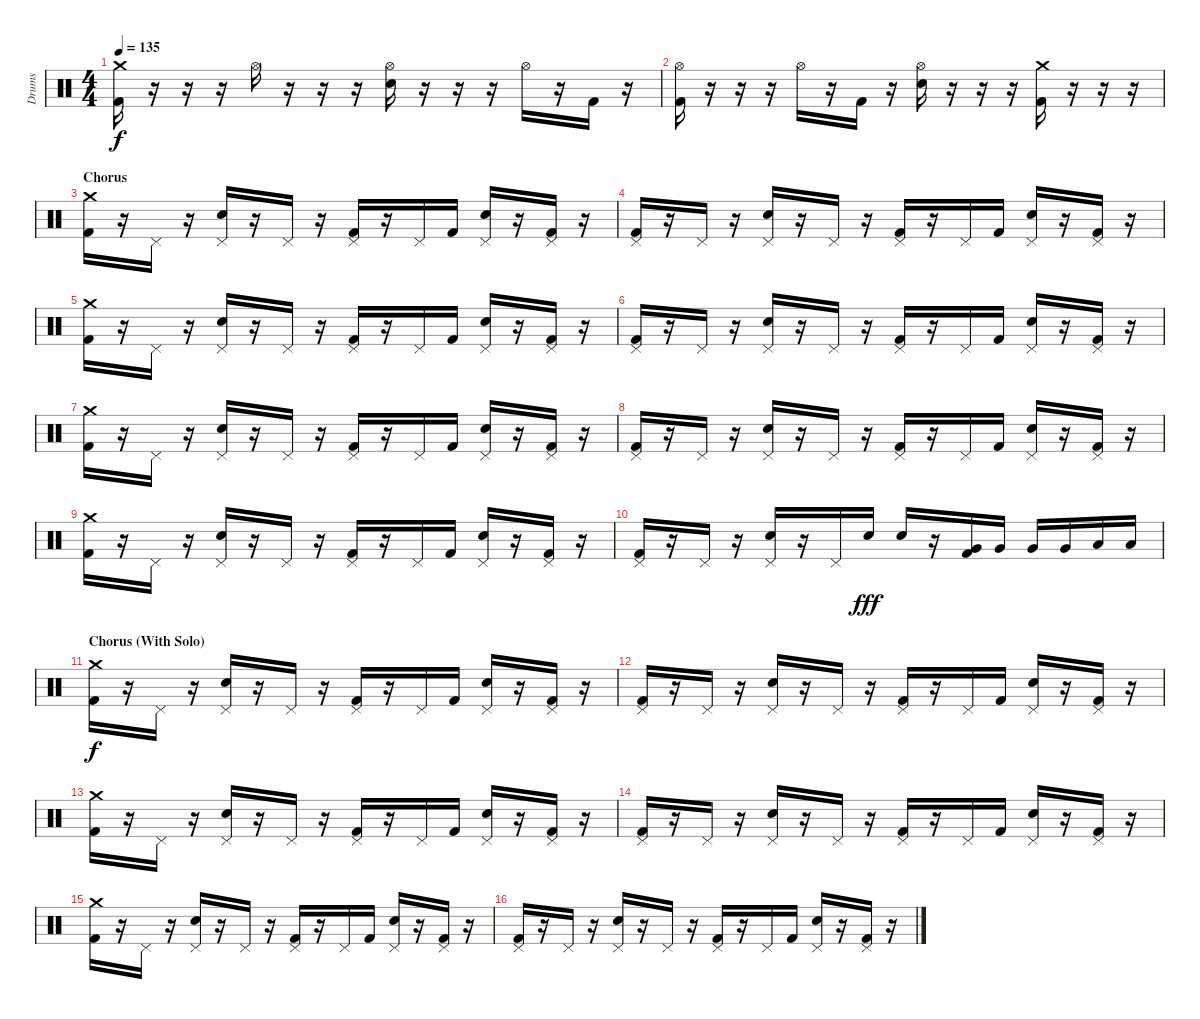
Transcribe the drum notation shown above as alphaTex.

\track ("Drums" "Drums") {instrument percussion}
\staff {score}
\articulation defaults
\ts (4 4)
\tempo 135
\clef neutral
\ks c
("Crash medium (hit)" "Kick (hit) 2").16{dy f} r.16 r.16 r.16 "Hi-Hat (open)".16 r.16 r.16 r.16 ("Hi-Hat (open)" "Electric Snare (hit)").16 r.16 r.16 r.16 "Hi-Hat (open)".16 r.16 "Kick (hit) 2".16 r.16 |
("Hi-Hat (open)" "Kick (hit) 2").16 r.16 r.16 r.16 "Hi-Hat (open)".16 r.16 "Kick (hit) 2".16 r.16 ("Hi-Hat (open)" "Electric Snare (hit)").16 r.16 r.16 r.16 ("Crash medium (hit)" "Kick (hit) 2").16 r.16 r.16 r.16 |
\section ("" "Chorus")
("Crash medium (hit)" "Kick (hit) 2").16 r.16 "Pedal Hi-Hat (hit)".16 r.16 ("Pedal Hi-Hat (hit)" "Electric Snare (hit)").16 r.16 "Pedal Hi-Hat (hit)".16 r.16 ("Pedal Hi-Hat (hit)" "Kick (hit) 2").16 r.16 "Pedal Hi-Hat (hit)".16 "Kick (hit) 2".16 ("Pedal Hi-Hat (hit)" "Electric Snare (hit)").16 r.16 ("Pedal Hi-Hat (hit)" "Kick (hit) 2").16 r.16 |
("Pedal Hi-Hat (hit)" "Kick (hit) 2").16 r.16 "Pedal Hi-Hat (hit)".16 r.16 ("Pedal Hi-Hat (hit)" "Electric Snare (hit)").16 r.16 "Pedal Hi-Hat (hit)".16 r.16 ("Pedal Hi-Hat (hit)" "Kick (hit) 2").16 r.16 "Pedal Hi-Hat (hit)".16 "Kick (hit) 2".16 ("Pedal Hi-Hat (hit)" "Electric Snare (hit)").16 r.16 ("Pedal Hi-Hat (hit)" "Kick (hit) 2").16 r.16 |
("Crash medium (hit)" "Kick (hit) 2").16 r.16 "Pedal Hi-Hat (hit)".16 r.16 ("Pedal Hi-Hat (hit)" "Electric Snare (hit)").16 r.16 "Pedal Hi-Hat (hit)".16 r.16 ("Pedal Hi-Hat (hit)" "Kick (hit) 2").16 r.16 "Pedal Hi-Hat (hit)".16 "Kick (hit) 2".16 ("Pedal Hi-Hat (hit)" "Electric Snare (hit)").16 r.16 ("Pedal Hi-Hat (hit)" "Kick (hit) 2").16 r.16 |
("Pedal Hi-Hat (hit)" "Kick (hit) 2").16 r.16 "Pedal Hi-Hat (hit)".16 r.16 ("Pedal Hi-Hat (hit)" "Electric Snare (hit)").16 r.16 "Pedal Hi-Hat (hit)".16 r.16 ("Pedal Hi-Hat (hit)" "Kick (hit) 2").16 r.16 "Pedal Hi-Hat (hit)".16 "Kick (hit) 2".16 ("Pedal Hi-Hat (hit)" "Electric Snare (hit)").16 r.16 ("Pedal Hi-Hat (hit)" "Kick (hit) 2").16 r.16 |
("Crash medium (hit)" "Kick (hit) 2").16 r.16 "Pedal Hi-Hat (hit)".16 r.16 ("Pedal Hi-Hat (hit)" "Electric Snare (hit)").16 r.16 "Pedal Hi-Hat (hit)".16 r.16 ("Pedal Hi-Hat (hit)" "Kick (hit) 2").16 r.16 "Pedal Hi-Hat (hit)".16 "Kick (hit) 2".16 ("Pedal Hi-Hat (hit)" "Electric Snare (hit)").16 r.16 ("Pedal Hi-Hat (hit)" "Kick (hit) 2").16 r.16 |
("Pedal Hi-Hat (hit)" "Kick (hit) 2").16 r.16 "Pedal Hi-Hat (hit)".16 r.16 ("Pedal Hi-Hat (hit)" "Electric Snare (hit)").16 r.16 "Pedal Hi-Hat (hit)".16 r.16 ("Pedal Hi-Hat (hit)" "Kick (hit) 2").16 r.16 "Pedal Hi-Hat (hit)".16 "Kick (hit) 2".16 ("Pedal Hi-Hat (hit)" "Electric Snare (hit)").16 r.16 ("Pedal Hi-Hat (hit)" "Kick (hit) 2").16 r.16 |
("Crash medium (hit)" "Kick (hit) 2").16 r.16 "Pedal Hi-Hat (hit)".16 r.16 ("Pedal Hi-Hat (hit)" "Electric Snare (hit)").16 r.16 "Pedal Hi-Hat (hit)".16 r.16 ("Pedal Hi-Hat (hit)" "Kick (hit) 2").16 r.16 "Pedal Hi-Hat (hit)".16 "Kick (hit) 2".16 ("Pedal Hi-Hat (hit)" "Electric Snare (hit)").16 r.16 ("Pedal Hi-Hat (hit)" "Kick (hit) 2").16 r.16 |
("Pedal Hi-Hat (hit)" "Kick (hit) 2").16 r.16 "Pedal Hi-Hat (hit)".16 r.16 ("Pedal Hi-Hat (hit)" "Electric Snare (hit)").16 r.16 "Pedal Hi-Hat (hit)".16 "Electric Snare (hit)".16{dy fff} "Electric Snare (hit)".16 r.16 ("Kick (hit) 2" "Very Low Tom (hit)").16 "Very Low Tom (hit)".16 "Very Low Tom (hit)".16 "Very Low Tom (hit)".16 "Low Floor Tom (hit)".16 "Low Floor Tom (hit)".16 |
\section ("" "Chorus (With Solo)")
("Crash medium (hit)" "Kick (hit) 2").16{dy f} r.16 "Pedal Hi-Hat (hit)".16 r.16 ("Pedal Hi-Hat (hit)" "Electric Snare (hit)").16 r.16 "Pedal Hi-Hat (hit)".16 r.16 ("Pedal Hi-Hat (hit)" "Kick (hit) 2").16 r.16 "Pedal Hi-Hat (hit)".16 "Kick (hit) 2".16 ("Pedal Hi-Hat (hit)" "Electric Snare (hit)").16 r.16 ("Pedal Hi-Hat (hit)" "Kick (hit) 2").16 r.16 |
("Pedal Hi-Hat (hit)" "Kick (hit) 2").16 r.16 "Pedal Hi-Hat (hit)".16 r.16 ("Pedal Hi-Hat (hit)" "Electric Snare (hit)").16 r.16 "Pedal Hi-Hat (hit)".16 r.16 ("Pedal Hi-Hat (hit)" "Kick (hit) 2").16 r.16 "Pedal Hi-Hat (hit)".16 "Kick (hit) 2".16 ("Pedal Hi-Hat (hit)" "Electric Snare (hit)").16 r.16 ("Pedal Hi-Hat (hit)" "Kick (hit) 2").16 r.16 |
("Crash medium (hit)" "Kick (hit) 2").16 r.16 "Pedal Hi-Hat (hit)".16 r.16 ("Pedal Hi-Hat (hit)" "Electric Snare (hit)").16 r.16 "Pedal Hi-Hat (hit)".16 r.16 ("Pedal Hi-Hat (hit)" "Kick (hit) 2").16 r.16 "Pedal Hi-Hat (hit)".16 "Kick (hit) 2".16 ("Pedal Hi-Hat (hit)" "Electric Snare (hit)").16 r.16 ("Pedal Hi-Hat (hit)" "Kick (hit) 2").16 r.16 |
("Pedal Hi-Hat (hit)" "Kick (hit) 2").16 r.16 "Pedal Hi-Hat (hit)".16 r.16 ("Pedal Hi-Hat (hit)" "Electric Snare (hit)").16 r.16 "Pedal Hi-Hat (hit)".16 r.16 ("Pedal Hi-Hat (hit)" "Kick (hit) 2").16 r.16 "Pedal Hi-Hat (hit)".16 "Kick (hit) 2".16 ("Pedal Hi-Hat (hit)" "Electric Snare (hit)").16 r.16 ("Pedal Hi-Hat (hit)" "Kick (hit) 2").16 r.16 |
("Crash medium (hit)" "Kick (hit) 2").16 r.16 "Pedal Hi-Hat (hit)".16 r.16 ("Pedal Hi-Hat (hit)" "Electric Snare (hit)").16 r.16 "Pedal Hi-Hat (hit)".16 r.16 ("Pedal Hi-Hat (hit)" "Kick (hit) 2").16 r.16 "Pedal Hi-Hat (hit)".16 "Kick (hit) 2".16 ("Pedal Hi-Hat (hit)" "Electric Snare (hit)").16 r.16 ("Pedal Hi-Hat (hit)" "Kick (hit) 2").16 r.16 |
("Pedal Hi-Hat (hit)" "Kick (hit) 2").16 r.16 "Pedal Hi-Hat (hit)".16 r.16 ("Pedal Hi-Hat (hit)" "Electric Snare (hit)").16 r.16 "Pedal Hi-Hat (hit)".16 r.16 ("Pedal Hi-Hat (hit)" "Kick (hit) 2").16 r.16 "Pedal Hi-Hat (hit)".16 "Kick (hit) 2".16 ("Pedal Hi-Hat (hit)" "Electric Snare (hit)").16 r.16 ("Pedal Hi-Hat (hit)" "Kick (hit) 2").16 r.16
